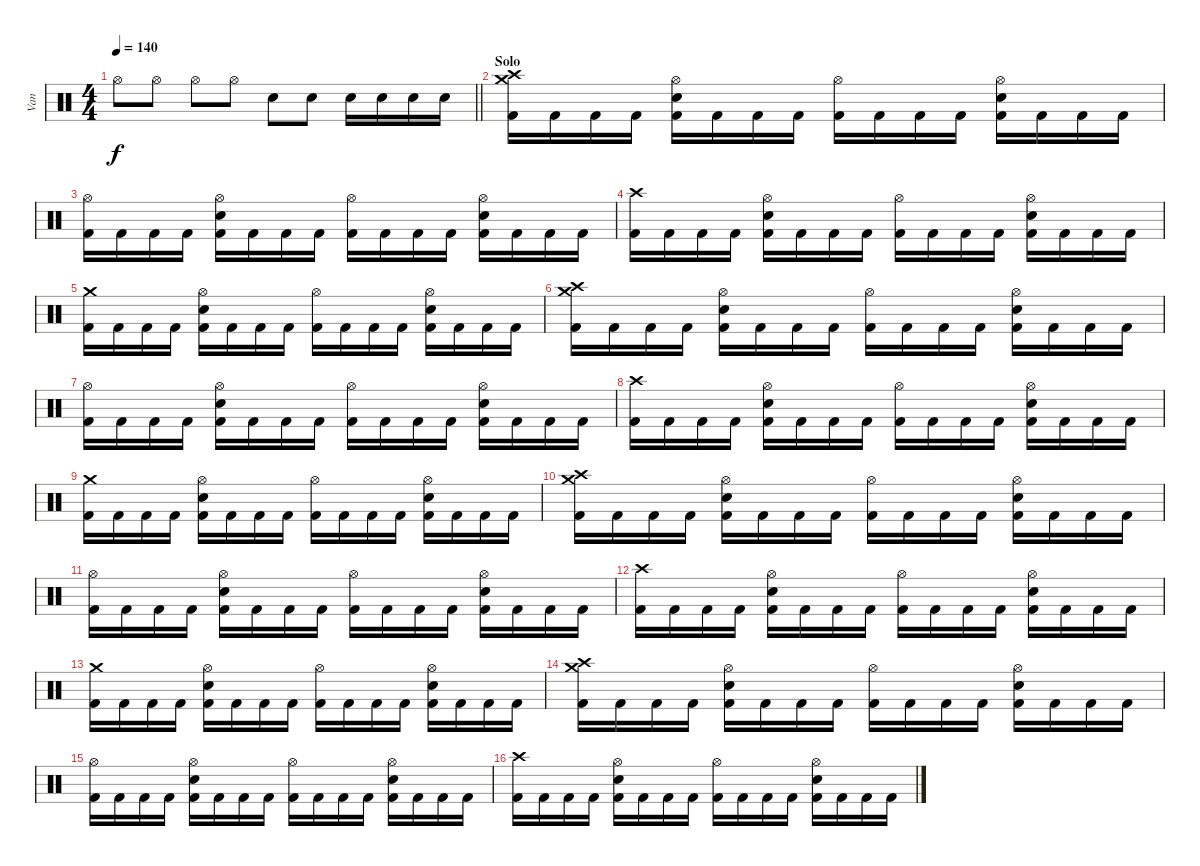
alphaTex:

\track ("Van" "Van") {instrument percussion}
\staff {score}
\articulation defaults
\ts (4 4)
\tempo 140
\clef neutral
\barLineRight lightlight
\ks c "Hi-Hat (open)".8{dy f} "Hi-Hat (open)".8 "Hi-Hat (open)".8 "Hi-Hat (open)".8 "Electric Snare (hit)".8 "Electric Snare (hit)".8 "Electric Snare (hit)".16 "Electric Snare (hit)".16 "Electric Snare (hit)".16 "Electric Snare (hit)".16
|
\section ("" "Solo")
("Crash high (hit)" "Crash medium (hit)" "Kick (hit) 2").16 "Kick (hit) 2".16 "Kick (hit) 2".16 "Kick (hit) 2".16 ("Hi-Hat (open)" "Electric Snare (hit)" "Kick (hit) 2").16 "Kick (hit) 2".16 "Kick (hit) 2".16 "Kick (hit) 2".16 ("Hi-Hat (open)" "Kick (hit) 2").16 "Kick (hit) 2".16 "Kick (hit) 2".16 "Kick (hit) 2".16 ("Hi-Hat (open)" "Electric Snare (hit)" "Kick (hit) 2").16 "Kick (hit) 2".16 "Kick (hit) 2".16 "Kick (hit) 2".16 |
("Hi-Hat (open)" "Kick (hit) 2").16 "Kick (hit) 2".16 "Kick (hit) 2".16 "Kick (hit) 2".16 ("Hi-Hat (open)" "Electric Snare (hit)" "Kick (hit) 2").16 "Kick (hit) 2".16 "Kick (hit) 2".16 "Kick (hit) 2".16 ("Hi-Hat (open)" "Kick (hit) 2").16 "Kick (hit) 2".16 "Kick (hit) 2".16 "Kick (hit) 2".16 ("Hi-Hat (open)" "Electric Snare (hit)" "Kick (hit) 2").16 "Kick (hit) 2".16 "Kick (hit) 2".16 "Kick (hit) 2".16 |
("Crash high (hit)" "Kick (hit) 2").16 "Kick (hit) 2".16 "Kick (hit) 2".16 "Kick (hit) 2".16 ("Hi-Hat (open)" "Electric Snare (hit)" "Kick (hit) 2").16 "Kick (hit) 2".16 "Kick (hit) 2".16 "Kick (hit) 2".16 ("Hi-Hat (open)" "Kick (hit) 2").16 "Kick (hit) 2".16 "Kick (hit) 2".16 "Kick (hit) 2".16 ("Hi-Hat (open)" "Electric Snare (hit)" "Kick (hit) 2").16 "Kick (hit) 2".16 "Kick (hit) 2".16 "Kick (hit) 2".16 |
("Crash medium (hit)" "Kick (hit) 2").16 "Kick (hit) 2".16 "Kick (hit) 2".16 "Kick (hit) 2".16 ("Hi-Hat (open)" "Electric Snare (hit)" "Kick (hit) 2").16 "Kick (hit) 2".16 "Kick (hit) 2".16 "Kick (hit) 2".16 ("Hi-Hat (open)" "Kick (hit) 2").16 "Kick (hit) 2".16 "Kick (hit) 2".16 "Kick (hit) 2".16 ("Hi-Hat (open)" "Electric Snare (hit)" "Kick (hit) 2").16 "Kick (hit) 2".16 "Kick (hit) 2".16 "Kick (hit) 2".16 |
("Crash high (hit)" "Crash medium (hit)" "Kick (hit) 2").16 "Kick (hit) 2".16 "Kick (hit) 2".16 "Kick (hit) 2".16 ("Hi-Hat (open)" "Electric Snare (hit)" "Kick (hit) 2").16 "Kick (hit) 2".16 "Kick (hit) 2".16 "Kick (hit) 2".16 ("Hi-Hat (open)" "Kick (hit) 2").16 "Kick (hit) 2".16 "Kick (hit) 2".16 "Kick (hit) 2".16 ("Hi-Hat (open)" "Electric Snare (hit)" "Kick (hit) 2").16 "Kick (hit) 2".16 "Kick (hit) 2".16 "Kick (hit) 2".16 |
("Hi-Hat (open)" "Kick (hit) 2").16 "Kick (hit) 2".16 "Kick (hit) 2".16 "Kick (hit) 2".16 ("Hi-Hat (open)" "Electric Snare (hit)" "Kick (hit) 2").16 "Kick (hit) 2".16 "Kick (hit) 2".16 "Kick (hit) 2".16 ("Hi-Hat (open)" "Kick (hit) 2").16 "Kick (hit) 2".16 "Kick (hit) 2".16 "Kick (hit) 2".16 ("Hi-Hat (open)" "Electric Snare (hit)" "Kick (hit) 2").16 "Kick (hit) 2".16 "Kick (hit) 2".16 "Kick (hit) 2".16 |
("Crash high (hit)" "Kick (hit) 2").16 "Kick (hit) 2".16 "Kick (hit) 2".16 "Kick (hit) 2".16 ("Hi-Hat (open)" "Electric Snare (hit)" "Kick (hit) 2").16 "Kick (hit) 2".16 "Kick (hit) 2".16 "Kick (hit) 2".16 ("Hi-Hat (open)" "Kick (hit) 2").16 "Kick (hit) 2".16 "Kick (hit) 2".16 "Kick (hit) 2".16 ("Hi-Hat (open)" "Electric Snare (hit)" "Kick (hit) 2").16 "Kick (hit) 2".16 "Kick (hit) 2".16 "Kick (hit) 2".16 |
("Crash medium (hit)" "Kick (hit) 2").16 "Kick (hit) 2".16 "Kick (hit) 2".16 "Kick (hit) 2".16 ("Hi-Hat (open)" "Electric Snare (hit)" "Kick (hit) 2").16 "Kick (hit) 2".16 "Kick (hit) 2".16 "Kick (hit) 2".16 ("Hi-Hat (open)" "Kick (hit) 2").16 "Kick (hit) 2".16 "Kick (hit) 2".16 "Kick (hit) 2".16 ("Hi-Hat (open)" "Electric Snare (hit)" "Kick (hit) 2").16 "Kick (hit) 2".16 "Kick (hit) 2".16 "Kick (hit) 2".16 |
("Crash high (hit)" "Crash medium (hit)" "Kick (hit) 2").16 "Kick (hit) 2".16 "Kick (hit) 2".16 "Kick (hit) 2".16 ("Hi-Hat (open)" "Electric Snare (hit)" "Kick (hit) 2").16 "Kick (hit) 2".16 "Kick (hit) 2".16 "Kick (hit) 2".16 ("Hi-Hat (open)" "Kick (hit) 2").16 "Kick (hit) 2".16 "Kick (hit) 2".16 "Kick (hit) 2".16 ("Hi-Hat (open)" "Electric Snare (hit)" "Kick (hit) 2").16 "Kick (hit) 2".16 "Kick (hit) 2".16 "Kick (hit) 2".16 |
("Hi-Hat (open)" "Kick (hit) 2").16 "Kick (hit) 2".16 "Kick (hit) 2".16 "Kick (hit) 2".16 ("Hi-Hat (open)" "Electric Snare (hit)" "Kick (hit) 2").16 "Kick (hit) 2".16 "Kick (hit) 2".16 "Kick (hit) 2".16 ("Hi-Hat (open)" "Kick (hit) 2").16 "Kick (hit) 2".16 "Kick (hit) 2".16 "Kick (hit) 2".16 ("Hi-Hat (open)" "Electric Snare (hit)" "Kick (hit) 2").16 "Kick (hit) 2".16 "Kick (hit) 2".16 "Kick (hit) 2".16 |
("Crash high (hit)" "Kick (hit) 2").16 "Kick (hit) 2".16 "Kick (hit) 2".16 "Kick (hit) 2".16 ("Hi-Hat (open)" "Electric Snare (hit)" "Kick (hit) 2").16 "Kick (hit) 2".16 "Kick (hit) 2".16 "Kick (hit) 2".16 ("Hi-Hat (open)" "Kick (hit) 2").16 "Kick (hit) 2".16 "Kick (hit) 2".16 "Kick (hit) 2".16 ("Hi-Hat (open)" "Electric Snare (hit)" "Kick (hit) 2").16 "Kick (hit) 2".16 "Kick (hit) 2".16 "Kick (hit) 2".16 |
("Crash medium (hit)" "Kick (hit) 2").16 "Kick (hit) 2".16 "Kick (hit) 2".16 "Kick (hit) 2".16 ("Hi-Hat (open)" "Electric Snare (hit)" "Kick (hit) 2").16 "Kick (hit) 2".16 "Kick (hit) 2".16 "Kick (hit) 2".16 ("Hi-Hat (open)" "Kick (hit) 2").16 "Kick (hit) 2".16 "Kick (hit) 2".16 "Kick (hit) 2".16 ("Hi-Hat (open)" "Electric Snare (hit)" "Kick (hit) 2").16 "Kick (hit) 2".16 "Kick (hit) 2".16 "Kick (hit) 2".16 |
("Crash high (hit)" "Crash medium (hit)" "Kick (hit) 2").16 "Kick (hit) 2".16 "Kick (hit) 2".16 "Kick (hit) 2".16 ("Hi-Hat (open)" "Electric Snare (hit)" "Kick (hit) 2").16 "Kick (hit) 2".16 "Kick (hit) 2".16 "Kick (hit) 2".16 ("Hi-Hat (open)" "Kick (hit) 2").16 "Kick (hit) 2".16 "Kick (hit) 2".16 "Kick (hit) 2".16 ("Hi-Hat (open)" "Electric Snare (hit)" "Kick (hit) 2").16 "Kick (hit) 2".16 "Kick (hit) 2".16 "Kick (hit) 2".16 |
("Hi-Hat (open)" "Kick (hit) 2").16 "Kick (hit) 2".16 "Kick (hit) 2".16 "Kick (hit) 2".16 ("Hi-Hat (open)" "Electric Snare (hit)" "Kick (hit) 2").16 "Kick (hit) 2".16 "Kick (hit) 2".16 "Kick (hit) 2".16 ("Hi-Hat (open)" "Kick (hit) 2").16 "Kick (hit) 2".16 "Kick (hit) 2".16 "Kick (hit) 2".16 ("Hi-Hat (open)" "Electric Snare (hit)" "Kick (hit) 2").16 "Kick (hit) 2".16 "Kick (hit) 2".16 "Kick (hit) 2".16 |
("Crash high (hit)" "Kick (hit) 2").16 "Kick (hit) 2".16 "Kick (hit) 2".16 "Kick (hit) 2".16 ("Hi-Hat (open)" "Electric Snare (hit)" "Kick (hit) 2").16 "Kick (hit) 2".16 "Kick (hit) 2".16 "Kick (hit) 2".16 ("Hi-Hat (open)" "Kick (hit) 2").16 "Kick (hit) 2".16 "Kick (hit) 2".16 "Kick (hit) 2".16 ("Hi-Hat (open)" "Electric Snare (hit)" "Kick (hit) 2").16 "Kick (hit) 2".16 "Kick (hit) 2".16 "Kick (hit) 2".16
